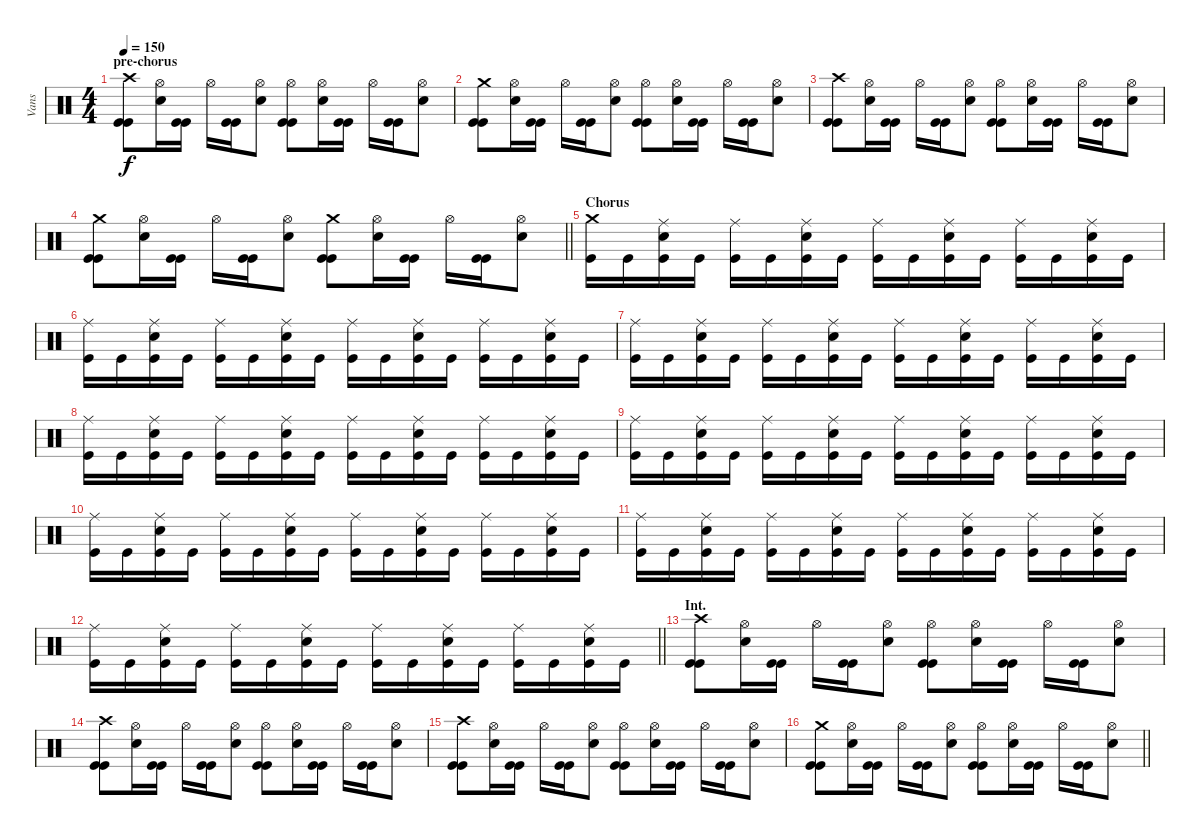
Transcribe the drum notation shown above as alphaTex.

\track ("Vans" "Vans") {instrument percussion}
\staff {score}
\articulation defaults
\ts (4 4)
\section ("" "pre-chorus")
\tempo 150
\clef neutral
\ks c
("Crash high (hit)" "Kick (hit)" "Kick (hit)").8{dy f} ("Hi-Hat (open)" "Snare (hit) 2").16 ("Kick (hit)" "Kick (hit)").16 "Hi-Hat (open)".16 ("Kick (hit)" "Kick (hit)").16 ("Hi-Hat (open)" "Snare (hit) 2").8 ("Hi-Hat (open)" "Kick (hit)" "Kick (hit)").8 ("Hi-Hat (open)" "Snare (hit) 2").16 ("Kick (hit)" "Kick (hit)").16 "Hi-Hat (open)".16 ("Kick (hit)" "Kick (hit)").16 ("Hi-Hat (open)" "Snare (hit) 2").8 |
("Crash medium (hit)" "Kick (hit)" "Kick (hit)").8 ("Hi-Hat (open)" "Snare (hit) 2").16 ("Kick (hit)" "Kick (hit)").16 "Hi-Hat (open)".16 ("Kick (hit)" "Kick (hit)").16 ("Hi-Hat (open)" "Snare (hit) 2").8 ("Hi-Hat (open)" "Kick (hit)" "Kick (hit)").8 ("Hi-Hat (open)" "Snare (hit) 2").16 ("Kick (hit)" "Kick (hit)").16 "Hi-Hat (open)".16 ("Kick (hit)" "Kick (hit)").16 ("Hi-Hat (open)" "Snare (hit) 2").8 |
("Crash high (hit)" "Kick (hit)" "Kick (hit)").8 ("Hi-Hat (open)" "Snare (hit) 2").16 ("Kick (hit)" "Kick (hit)").16 "Hi-Hat (open)".16 ("Kick (hit)" "Kick (hit)").16 ("Hi-Hat (open)" "Snare (hit) 2").8 ("Hi-Hat (open)" "Kick (hit)" "Kick (hit)").8 ("Hi-Hat (open)" "Snare (hit) 2").16 ("Kick (hit)" "Kick (hit)").16 "Hi-Hat (open)".16 ("Kick (hit)" "Kick (hit)").16 ("Hi-Hat (open)" "Snare (hit) 2").8 |
\barLineRight lightlight
("Crash medium (hit)" "Kick (hit)" "Kick (hit)").8 ("Hi-Hat (open)" "Snare (hit) 2").16 ("Kick (hit)" "Kick (hit)").16 "Hi-Hat (open)".16 ("Kick (hit)" "Kick (hit)").16 ("Hi-Hat (open)" "Snare (hit) 2").8 ("Crash medium (hit)" "Kick (hit)" "Kick (hit)").8 ("Hi-Hat (open)" "Snare (hit) 2").16 ("Kick (hit)" "Kick (hit)").16 "Hi-Hat (open)".16 ("Kick (hit)" "Kick (hit)").16 ("Hi-Hat (open)" "Snare (hit) 2").8 |
\section ("" "Chorus")
("Crash medium (hit)" "Kick (hit)").16 "Kick (hit)".16 ("Ride (middle)" "Kick (hit)" "Snare (hit) 2").16 "Kick (hit)".16 ("Ride (middle)" "Kick (hit)").16 "Kick (hit)".16 ("Ride (middle)" "Kick (hit)" "Snare (hit) 2").16 "Kick (hit)".16 ("Ride (middle)" "Kick (hit)").16 "Kick (hit)".16 ("Ride (middle)" "Kick (hit)" "Snare (hit) 2").16 "Kick (hit)".16 ("Ride (middle)" "Kick (hit)").16 "Kick (hit)".16 ("Ride (middle)" "Kick (hit)" "Snare (hit) 2").16 "Kick (hit)".16 |
("Ride (middle)" "Kick (hit)").16 "Kick (hit)".16 ("Ride (middle)" "Kick (hit)" "Snare (hit) 2").16 "Kick (hit)".16 ("Ride (middle)" "Kick (hit)").16 "Kick (hit)".16 ("Ride (middle)" "Kick (hit)" "Snare (hit) 2").16 "Kick (hit)".16 ("Ride (middle)" "Kick (hit)").16 "Kick (hit)".16 ("Ride (middle)" "Kick (hit)" "Snare (hit) 2").16 "Kick (hit)".16 ("Ride (middle)" "Kick (hit)").16 "Kick (hit)".16 ("Ride (middle)" "Kick (hit)" "Snare (hit) 2").16 "Kick (hit)".16 |
("Ride (middle)" "Kick (hit)").16 "Kick (hit)".16 ("Ride (middle)" "Kick (hit)" "Snare (hit) 2").16 "Kick (hit)".16 ("Ride (middle)" "Kick (hit)").16 "Kick (hit)".16 ("Ride (middle)" "Kick (hit)" "Snare (hit) 2").16 "Kick (hit)".16 ("Ride (middle)" "Kick (hit)").16 "Kick (hit)".16 ("Ride (middle)" "Kick (hit)" "Snare (hit) 2").16 "Kick (hit)".16 ("Ride (middle)" "Kick (hit)").16 "Kick (hit)".16 ("Ride (middle)" "Kick (hit)" "Snare (hit) 2").16 "Kick (hit)".16 |
("Ride (middle)" "Kick (hit)").16 "Kick (hit)".16 ("Ride (middle)" "Kick (hit)" "Snare (hit) 2").16 "Kick (hit)".16 ("Ride (middle)" "Kick (hit)").16 "Kick (hit)".16 ("Ride (middle)" "Kick (hit)" "Snare (hit) 2").16 "Kick (hit)".16 ("Ride (middle)" "Kick (hit)").16 "Kick (hit)".16 ("Ride (middle)" "Kick (hit)" "Snare (hit) 2").16 "Kick (hit)".16 ("Ride (middle)" "Kick (hit)").16 "Kick (hit)".16 ("Ride (middle)" "Kick (hit)" "Snare (hit) 2").16 "Kick (hit)".16 |
("Ride (middle)" "Kick (hit)").16 "Kick (hit)".16 ("Ride (middle)" "Kick (hit)" "Snare (hit) 2").16 "Kick (hit)".16 ("Ride (middle)" "Kick (hit)").16 "Kick (hit)".16 ("Ride (middle)" "Kick (hit)" "Snare (hit) 2").16 "Kick (hit)".16 ("Ride (middle)" "Kick (hit)").16 "Kick (hit)".16 ("Ride (middle)" "Kick (hit)" "Snare (hit) 2").16 "Kick (hit)".16 ("Ride (middle)" "Kick (hit)").16 "Kick (hit)".16 ("Ride (middle)" "Kick (hit)" "Snare (hit) 2").16 "Kick (hit)".16 |
("Ride (middle)" "Kick (hit)").16 "Kick (hit)".16 ("Ride (middle)" "Kick (hit)" "Snare (hit) 2").16 "Kick (hit)".16 ("Ride (middle)" "Kick (hit)").16 "Kick (hit)".16 ("Ride (middle)" "Kick (hit)" "Snare (hit) 2").16 "Kick (hit)".16 ("Ride (middle)" "Kick (hit)").16 "Kick (hit)".16 ("Ride (middle)" "Kick (hit)" "Snare (hit) 2").16 "Kick (hit)".16 ("Ride (middle)" "Kick (hit)").16 "Kick (hit)".16 ("Ride (middle)" "Kick (hit)" "Snare (hit) 2").16 "Kick (hit)".16 |
("Ride (middle)" "Kick (hit)").16 "Kick (hit)".16 ("Ride (middle)" "Kick (hit)" "Snare (hit) 2").16 "Kick (hit)".16 ("Ride (middle)" "Kick (hit)").16 "Kick (hit)".16 ("Ride (middle)" "Kick (hit)" "Snare (hit) 2").16 "Kick (hit)".16 ("Ride (middle)" "Kick (hit)").16 "Kick (hit)".16 ("Ride (middle)" "Kick (hit)" "Snare (hit) 2").16 "Kick (hit)".16 ("Ride (middle)" "Kick (hit)").16 "Kick (hit)".16 ("Ride (middle)" "Kick (hit)" "Snare (hit) 2").16 "Kick (hit)".16 |
\barLineRight lightlight
("Ride (middle)" "Kick (hit)").16 "Kick (hit)".16 ("Ride (middle)" "Kick (hit)" "Snare (hit) 2").16 "Kick (hit)".16 ("Ride (middle)" "Kick (hit)").16 "Kick (hit)".16 ("Ride (middle)" "Kick (hit)" "Snare (hit) 2").16 "Kick (hit)".16 ("Ride (middle)" "Kick (hit)").16 "Kick (hit)".16 ("Ride (middle)" "Kick (hit)" "Snare (hit) 2").16 "Kick (hit)".16 ("Ride (middle)" "Kick (hit)").16 "Kick (hit)".16 ("Ride (middle)" "Kick (hit)" "Snare (hit) 2").16 "Kick (hit)".16 |
\section ("" "Int.")
("Crash high (hit)" "Kick (hit)" "Kick (hit)").8 ("Hi-Hat (open)" "Snare (hit) 2").16 ("Kick (hit)" "Kick (hit)").16 "Hi-Hat (open)".16 ("Kick (hit)" "Kick (hit)").16 ("Hi-Hat (open)" "Snare (hit) 2").8 ("Hi-Hat (open)" "Kick (hit)" "Kick (hit)").8 ("Hi-Hat (open)" "Snare (hit) 2").16 ("Kick (hit)" "Kick (hit)").16 "Hi-Hat (open)".16 ("Kick (hit)" "Kick (hit)").16 ("Hi-Hat (open)" "Snare (hit) 2").8 |
("Crash high (hit)" "Kick (hit)" "Kick (hit)").8 ("Hi-Hat (open)" "Snare (hit) 2").16 ("Kick (hit)" "Kick (hit)").16 "Hi-Hat (open)".16 ("Kick (hit)" "Kick (hit)").16 ("Hi-Hat (open)" "Snare (hit) 2").8 ("Hi-Hat (open)" "Kick (hit)" "Kick (hit)").8 ("Hi-Hat (open)" "Snare (hit) 2").16 ("Kick (hit)" "Kick (hit)").16 "Hi-Hat (open)".16 ("Kick (hit)" "Kick (hit)").16 ("Hi-Hat (open)" "Snare (hit) 2").8 |
("Crash high (hit)" "Kick (hit)" "Kick (hit)").8 ("Hi-Hat (open)" "Snare (hit) 2").16 ("Kick (hit)" "Kick (hit)").16 "Hi-Hat (open)".16 ("Kick (hit)" "Kick (hit)").16 ("Hi-Hat (open)" "Snare (hit) 2").8 ("Hi-Hat (open)" "Kick (hit)" "Kick (hit)").8 ("Hi-Hat (open)" "Snare (hit) 2").16 ("Kick (hit)" "Kick (hit)").16 "Hi-Hat (open)".16 ("Kick (hit)" "Kick (hit)").16 ("Hi-Hat (open)" "Snare (hit) 2").8 |
\barLineRight lightlight
("Crash medium (hit)" "Kick (hit)" "Kick (hit)").8 ("Hi-Hat (open)" "Snare (hit) 2").16 ("Kick (hit)" "Kick (hit)").16 "Hi-Hat (open)".16 ("Kick (hit)" "Kick (hit)").16 ("Hi-Hat (open)" "Snare (hit) 2").8 ("Hi-Hat (open)" "Kick (hit)" "Kick (hit)").8 ("Hi-Hat (open)" "Snare (hit) 2").16 ("Kick (hit)" "Kick (hit)").16 "Hi-Hat (open)".16 ("Kick (hit)" "Kick (hit)").16 ("Hi-Hat (open)" "Snare (hit) 2").8
